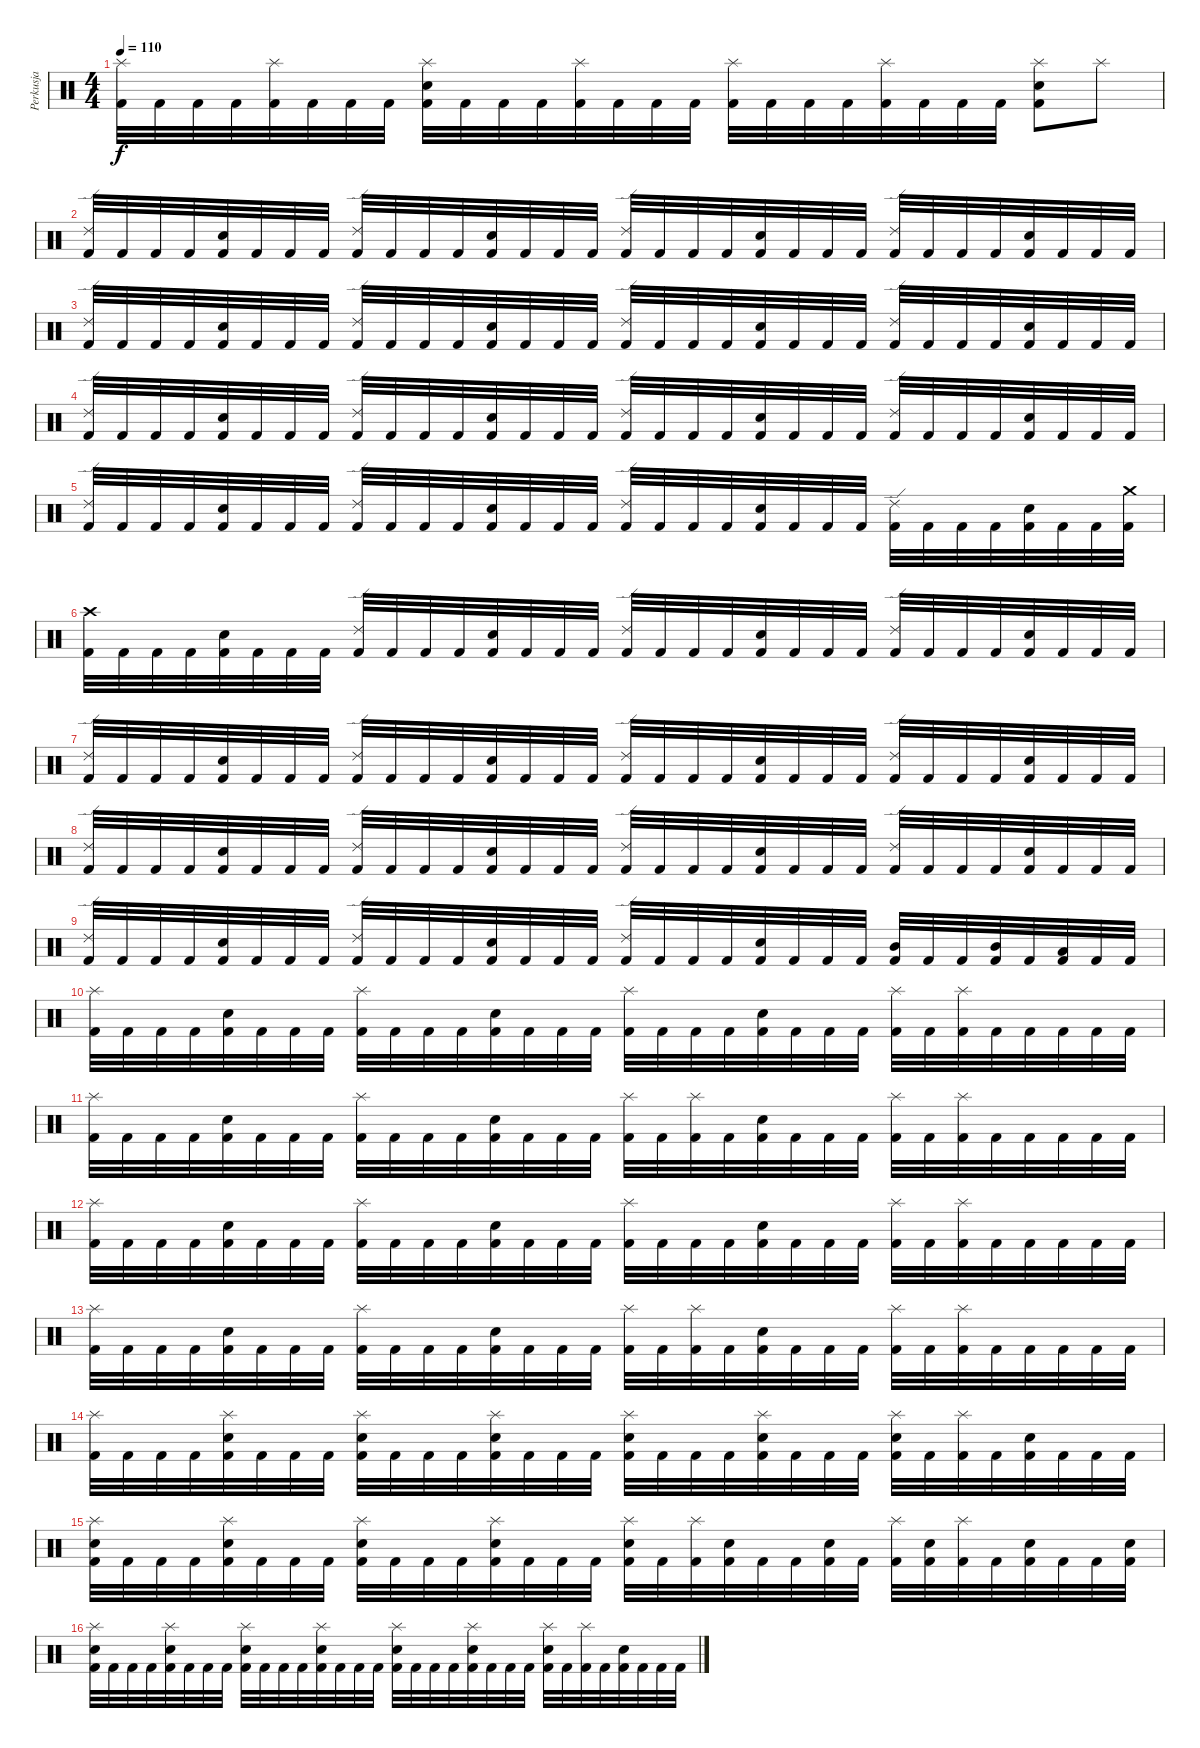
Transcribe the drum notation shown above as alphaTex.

\track ("Perkusja" "Perkusja") {instrument percussion}
\staff {score}
\articulation defaults
\ts (4 4)
\tempo 110
\clef neutral
\ks c
("Splash (hit)" "Kick (hit) 2").32{dy f} "Kick (hit) 2".32 "Kick (hit) 2".32 "Kick (hit) 2".32 ("Splash (hit)" "Kick (hit) 2").32 "Kick (hit) 2".32 "Kick (hit) 2".32 "Kick (hit) 2".32 ("Splash (hit)" "Snare (hit) 2" "Kick (hit) 2").32 "Kick (hit) 2".32 "Kick (hit) 2".32 "Kick (hit) 2".32 ("Splash (hit)" "Kick (hit) 2").32 "Kick (hit) 2".32 "Kick (hit) 2".32 "Kick (hit) 2".32 ("Splash (hit)" "Kick (hit) 2").32 "Kick (hit) 2".32 "Kick (hit) 2".32 "Kick (hit) 2".32 ("Splash (hit)" "Kick (hit) 2").32 "Kick (hit) 2".32 "Kick (hit) 2".32 "Kick (hit) 2".32 ("Splash (hit)" "Snare (hit) 2" "Kick (hit) 2").8 "Splash (hit)".8 |
("Ride (edge) 2" "Kick (hit) 2").32 "Kick (hit) 2".32 "Kick (hit) 2".32 "Kick (hit) 2".32 ("Snare (hit) 2" "Kick (hit) 2").32 "Kick (hit) 2".32 "Kick (hit) 2".32 "Kick (hit) 2".32 ("Ride (edge) 2" "Kick (hit) 2").32 "Kick (hit) 2".32 "Kick (hit) 2".32 "Kick (hit) 2".32 ("Snare (hit) 2" "Kick (hit) 2").32 "Kick (hit) 2".32 "Kick (hit) 2".32 "Kick (hit) 2".32 ("Ride (edge) 2" "Kick (hit) 2").32 "Kick (hit) 2".32 "Kick (hit) 2".32 "Kick (hit) 2".32 ("Snare (hit) 2" "Kick (hit) 2").32 "Kick (hit) 2".32 "Kick (hit) 2".32 "Kick (hit) 2".32 ("Ride (edge) 2" "Kick (hit) 2").32 "Kick (hit) 2".32 "Kick (hit) 2".32 "Kick (hit) 2".32 ("Snare (hit) 2" "Kick (hit) 2").32 "Kick (hit) 2".32 "Kick (hit) 2".32 "Kick (hit) 2".32 |
("Ride (edge) 2" "Kick (hit) 2").32 "Kick (hit) 2".32 "Kick (hit) 2".32 "Kick (hit) 2".32 ("Snare (hit) 2" "Kick (hit) 2").32 "Kick (hit) 2".32 "Kick (hit) 2".32 "Kick (hit) 2".32 ("Ride (edge) 2" "Kick (hit) 2").32 "Kick (hit) 2".32 "Kick (hit) 2".32 "Kick (hit) 2".32 ("Snare (hit) 2" "Kick (hit) 2").32 "Kick (hit) 2".32 "Kick (hit) 2".32 "Kick (hit) 2".32 ("Ride (edge) 2" "Kick (hit) 2").32 "Kick (hit) 2".32 "Kick (hit) 2".32 "Kick (hit) 2".32 ("Snare (hit) 2" "Kick (hit) 2").32 "Kick (hit) 2".32 "Kick (hit) 2".32 "Kick (hit) 2".32 ("Ride (edge) 2" "Kick (hit) 2").32 "Kick (hit) 2".32 "Kick (hit) 2".32 "Kick (hit) 2".32 ("Snare (hit) 2" "Kick (hit) 2").32 "Kick (hit) 2".32 "Kick (hit) 2".32 "Kick (hit) 2".32 |
("Ride (edge) 2" "Kick (hit) 2").32 "Kick (hit) 2".32 "Kick (hit) 2".32 "Kick (hit) 2".32 ("Snare (hit) 2" "Kick (hit) 2").32 "Kick (hit) 2".32 "Kick (hit) 2".32 "Kick (hit) 2".32 ("Ride (edge) 2" "Kick (hit) 2").32 "Kick (hit) 2".32 "Kick (hit) 2".32 "Kick (hit) 2".32 ("Snare (hit) 2" "Kick (hit) 2").32 "Kick (hit) 2".32 "Kick (hit) 2".32 "Kick (hit) 2".32 ("Ride (edge) 2" "Kick (hit) 2").32 "Kick (hit) 2".32 "Kick (hit) 2".32 "Kick (hit) 2".32 ("Snare (hit) 2" "Kick (hit) 2").32 "Kick (hit) 2".32 "Kick (hit) 2".32 "Kick (hit) 2".32 ("Ride (edge) 2" "Kick (hit) 2").32 "Kick (hit) 2".32 "Kick (hit) 2".32 "Kick (hit) 2".32 ("Snare (hit) 2" "Kick (hit) 2").32 "Kick (hit) 2".32 "Kick (hit) 2".32 "Kick (hit) 2".32 |
("Ride (edge) 2" "Kick (hit) 2").32 "Kick (hit) 2".32 "Kick (hit) 2".32 "Kick (hit) 2".32 ("Snare (hit) 2" "Kick (hit) 2").32 "Kick (hit) 2".32 "Kick (hit) 2".32 "Kick (hit) 2".32 ("Ride (edge) 2" "Kick (hit) 2").32 "Kick (hit) 2".32 "Kick (hit) 2".32 "Kick (hit) 2".32 ("Snare (hit) 2" "Kick (hit) 2").32 "Kick (hit) 2".32 "Kick (hit) 2".32 "Kick (hit) 2".32 ("Ride (edge) 2" "Kick (hit) 2").32 "Kick (hit) 2".32 "Kick (hit) 2".32 "Kick (hit) 2".32 ("Snare (hit) 2" "Kick (hit) 2").32 "Kick (hit) 2".32 "Kick (hit) 2".32 "Kick (hit) 2".32 ("Ride (edge) 2" "Kick (hit) 2").32 "Kick (hit) 2".32 "Kick (hit) 2".32 "Kick (hit) 2".32 ("Snare (hit) 2" "Kick (hit) 2").32 "Kick (hit) 2".32 "Kick (hit) 2".32 ("Crash medium (hit)" "Kick (hit) 2").32 |
("Crash high (hit)" "Kick (hit) 2").32 "Kick (hit) 2".32 "Kick (hit) 2".32 "Kick (hit) 2".32 ("Snare (hit) 2" "Kick (hit) 2").32 "Kick (hit) 2".32 "Kick (hit) 2".32 "Kick (hit) 2".32 ("Ride (edge) 2" "Kick (hit) 2").32 "Kick (hit) 2".32 "Kick (hit) 2".32 "Kick (hit) 2".32 ("Snare (hit) 2" "Kick (hit) 2").32 "Kick (hit) 2".32 "Kick (hit) 2".32 "Kick (hit) 2".32 ("Ride (edge) 2" "Kick (hit) 2").32 "Kick (hit) 2".32 "Kick (hit) 2".32 "Kick (hit) 2".32 ("Snare (hit) 2" "Kick (hit) 2").32 "Kick (hit) 2".32 "Kick (hit) 2".32 "Kick (hit) 2".32 ("Ride (edge) 2" "Kick (hit) 2").32 "Kick (hit) 2".32 "Kick (hit) 2".32 "Kick (hit) 2".32 ("Snare (hit) 2" "Kick (hit) 2").32 "Kick (hit) 2".32 "Kick (hit) 2".32 "Kick (hit) 2".32 |
("Ride (edge) 2" "Kick (hit) 2").32 "Kick (hit) 2".32 "Kick (hit) 2".32 "Kick (hit) 2".32 ("Snare (hit) 2" "Kick (hit) 2").32 "Kick (hit) 2".32 "Kick (hit) 2".32 "Kick (hit) 2".32 ("Ride (edge) 2" "Kick (hit) 2").32 "Kick (hit) 2".32 "Kick (hit) 2".32 "Kick (hit) 2".32 ("Snare (hit) 2" "Kick (hit) 2").32 "Kick (hit) 2".32 "Kick (hit) 2".32 "Kick (hit) 2".32 ("Ride (edge) 2" "Kick (hit) 2").32 "Kick (hit) 2".32 "Kick (hit) 2".32 "Kick (hit) 2".32 ("Snare (hit) 2" "Kick (hit) 2").32 "Kick (hit) 2".32 "Kick (hit) 2".32 "Kick (hit) 2".32 ("Ride (edge) 2" "Kick (hit) 2").32 "Kick (hit) 2".32 "Kick (hit) 2".32 "Kick (hit) 2".32 ("Snare (hit) 2" "Kick (hit) 2").32 "Kick (hit) 2".32 "Kick (hit) 2".32 "Kick (hit) 2".32 |
("Ride (edge) 2" "Kick (hit) 2").32 "Kick (hit) 2".32 "Kick (hit) 2".32 "Kick (hit) 2".32 ("Snare (hit) 2" "Kick (hit) 2").32 "Kick (hit) 2".32 "Kick (hit) 2".32 "Kick (hit) 2".32 ("Ride (edge) 2" "Kick (hit) 2").32 "Kick (hit) 2".32 "Kick (hit) 2".32 "Kick (hit) 2".32 ("Snare (hit) 2" "Kick (hit) 2").32 "Kick (hit) 2".32 "Kick (hit) 2".32 "Kick (hit) 2".32 ("Ride (edge) 2" "Kick (hit) 2").32 "Kick (hit) 2".32 "Kick (hit) 2".32 "Kick (hit) 2".32 ("Snare (hit) 2" "Kick (hit) 2").32 "Kick (hit) 2".32 "Kick (hit) 2".32 "Kick (hit) 2".32 ("Ride (edge) 2" "Kick (hit) 2").32 "Kick (hit) 2".32 "Kick (hit) 2".32 "Kick (hit) 2".32 ("Snare (hit) 2" "Kick (hit) 2").32 "Kick (hit) 2".32 "Kick (hit) 2".32 "Kick (hit) 2".32 |
("Ride (edge) 2" "Kick (hit) 2").32 "Kick (hit) 2".32 "Kick (hit) 2".32 "Kick (hit) 2".32 ("Snare (hit) 2" "Kick (hit) 2").32 "Kick (hit) 2".32 "Kick (hit) 2".32 "Kick (hit) 2".32 ("Ride (edge) 2" "Kick (hit) 2").32 "Kick (hit) 2".32 "Kick (hit) 2".32 "Kick (hit) 2".32 ("Snare (hit) 2" "Kick (hit) 2").32 "Kick (hit) 2".32 "Kick (hit) 2".32 "Kick (hit) 2".32 ("Ride (edge) 2" "Kick (hit) 2").32 "Kick (hit) 2".32 "Kick (hit) 2".32 "Kick (hit) 2".32 ("Snare (hit) 2" "Kick (hit) 2").32 "Kick (hit) 2".32 "Kick (hit) 2".32 "Kick (hit) 2".32 ("Mid Tom (hit)" "Kick (hit) 2").32 "Kick (hit) 2".32 "Kick (hit) 2".32 ("Mid Tom (hit)" "Kick (hit) 2").32 "Kick (hit) 2".32 ("Low Tom (hit)" "Kick (hit) 2").32 "Kick (hit) 2".32 "Kick (hit) 2".32 |
("Splash (hit)" "Kick (hit) 2").32 "Kick (hit) 2".32 "Kick (hit) 2".32 "Kick (hit) 2".32 ("Snare (hit) 2" "Kick (hit) 2").32 "Kick (hit) 2".32 "Kick (hit) 2".32 "Kick (hit) 2".32 ("Splash (hit)" "Kick (hit) 2").32 "Kick (hit) 2".32 "Kick (hit) 2".32 "Kick (hit) 2".32 ("Snare (hit) 2" "Kick (hit) 2").32 "Kick (hit) 2".32 "Kick (hit) 2".32 "Kick (hit) 2".32 ("Splash (hit)" "Kick (hit) 2").32 "Kick (hit) 2".32 "Kick (hit) 2".32 "Kick (hit) 2".32 ("Snare (hit) 2" "Kick (hit) 2").32 "Kick (hit) 2".32 "Kick (hit) 2".32 "Kick (hit) 2".32 ("Splash (hit)" "Kick (hit) 2").32 "Kick (hit) 2".32 ("Splash (hit)" "Kick (hit) 2").32 "Kick (hit) 2".32 "Kick (hit) 2".32 "Kick (hit) 2".32 "Kick (hit) 2".32 "Kick (hit) 2".32 |
("Splash (hit)" "Kick (hit) 2").32 "Kick (hit) 2".32 "Kick (hit) 2".32 "Kick (hit) 2".32 ("Snare (hit) 2" "Kick (hit) 2").32 "Kick (hit) 2".32 "Kick (hit) 2".32 "Kick (hit) 2".32 ("Splash (hit)" "Kick (hit) 2").32 "Kick (hit) 2".32 "Kick (hit) 2".32 "Kick (hit) 2".32 ("Snare (hit) 2" "Kick (hit) 2").32 "Kick (hit) 2".32 "Kick (hit) 2".32 "Kick (hit) 2".32 ("Splash (hit)" "Kick (hit) 2").32 "Kick (hit) 2".32 ("Splash (hit)" "Kick (hit) 2").32 "Kick (hit) 2".32 ("Snare (hit) 2" "Kick (hit) 2").32 "Kick (hit) 2".32 "Kick (hit) 2".32 "Kick (hit) 2".32 ("Splash (hit)" "Kick (hit) 2").32 "Kick (hit) 2".32 ("Splash (hit)" "Kick (hit) 2").32 "Kick (hit) 2".32 "Kick (hit) 2".32 "Kick (hit) 2".32 "Kick (hit) 2".32 "Kick (hit) 2".32 |
("Splash (hit)" "Kick (hit) 2").32 "Kick (hit) 2".32 "Kick (hit) 2".32 "Kick (hit) 2".32 ("Snare (hit) 2" "Kick (hit) 2").32 "Kick (hit) 2".32 "Kick (hit) 2".32 "Kick (hit) 2".32 ("Splash (hit)" "Kick (hit) 2").32 "Kick (hit) 2".32 "Kick (hit) 2".32 "Kick (hit) 2".32 ("Snare (hit) 2" "Kick (hit) 2").32 "Kick (hit) 2".32 "Kick (hit) 2".32 "Kick (hit) 2".32 ("Splash (hit)" "Kick (hit) 2").32 "Kick (hit) 2".32 "Kick (hit) 2".32 "Kick (hit) 2".32 ("Snare (hit) 2" "Kick (hit) 2").32 "Kick (hit) 2".32 "Kick (hit) 2".32 "Kick (hit) 2".32 ("Splash (hit)" "Kick (hit) 2").32 "Kick (hit) 2".32 ("Splash (hit)" "Kick (hit) 2").32 "Kick (hit) 2".32 "Kick (hit) 2".32 "Kick (hit) 2".32 "Kick (hit) 2".32 "Kick (hit) 2".32 |
("Splash (hit)" "Kick (hit) 2").32 "Kick (hit) 2".32 "Kick (hit) 2".32 "Kick (hit) 2".32 ("Snare (hit) 2" "Kick (hit) 2").32 "Kick (hit) 2".32 "Kick (hit) 2".32 "Kick (hit) 2".32 ("Splash (hit)" "Kick (hit) 2").32 "Kick (hit) 2".32 "Kick (hit) 2".32 "Kick (hit) 2".32 ("Snare (hit) 2" "Kick (hit) 2").32 "Kick (hit) 2".32 "Kick (hit) 2".32 "Kick (hit) 2".32 ("Splash (hit)" "Kick (hit) 2").32 "Kick (hit) 2".32 ("Splash (hit)" "Kick (hit) 2").32 "Kick (hit) 2".32 ("Snare (hit) 2" "Kick (hit) 2").32 "Kick (hit) 2".32 "Kick (hit) 2".32 "Kick (hit) 2".32 ("Splash (hit)" "Kick (hit) 2").32 "Kick (hit) 2".32 ("Splash (hit)" "Kick (hit) 2").32 "Kick (hit) 2".32 "Kick (hit) 2".32 "Kick (hit) 2".32 "Kick (hit) 2".32 "Kick (hit) 2".32 |
("Splash (hit)" "Kick (hit) 2").32 "Kick (hit) 2".32 "Kick (hit) 2".32 "Kick (hit) 2".32 ("Splash (hit)" "Snare (hit) 2" "Kick (hit) 2").32 "Kick (hit) 2".32 "Kick (hit) 2".32 "Kick (hit) 2".32 ("Splash (hit)" "Snare (hit) 2" "Kick (hit) 2").32 "Kick (hit) 2".32 "Kick (hit) 2".32 "Kick (hit) 2".32 ("Splash (hit)" "Snare (hit) 2" "Kick (hit) 2").32 "Kick (hit) 2".32 "Kick (hit) 2".32 "Kick (hit) 2".32 ("Splash (hit)" "Snare (hit) 2" "Kick (hit) 2").32 "Kick (hit) 2".32 "Kick (hit) 2".32 "Kick (hit) 2".32 ("Splash (hit)" "Snare (hit) 2" "Kick (hit) 2").32 "Kick (hit) 2".32 "Kick (hit) 2".32 "Kick (hit) 2".32 ("Splash (hit)" "Snare (hit) 2" "Kick (hit) 2").32 "Kick (hit) 2".32 ("Splash (hit)" "Kick (hit) 2").32 "Kick (hit) 2".32 ("Snare (hit) 2" "Kick (hit) 2").32 "Kick (hit) 2".32 "Kick (hit) 2".32 "Kick (hit) 2".32 |
("Splash (hit)" "Snare (hit) 2" "Kick (hit) 2").32 "Kick (hit) 2".32 "Kick (hit) 2".32 "Kick (hit) 2".32 ("Splash (hit)" "Snare (hit) 2" "Kick (hit) 2").32 "Kick (hit) 2".32 "Kick (hit) 2".32 "Kick (hit) 2".32 ("Splash (hit)" "Snare (hit) 2" "Kick (hit) 2").32 "Kick (hit) 2".32 "Kick (hit) 2".32 "Kick (hit) 2".32 ("Splash (hit)" "Snare (hit) 2" "Kick (hit) 2").32 "Kick (hit) 2".32 "Kick (hit) 2".32 "Kick (hit) 2".32 ("Splash (hit)" "Snare (hit) 2" "Kick (hit) 2").32 "Kick (hit) 2".32 ("Splash (hit)" "Kick (hit) 2").32 ("Snare (hit) 2" "Kick (hit) 2").32 "Kick (hit) 2".32 "Kick (hit) 2".32 ("Snare (hit) 2" "Kick (hit) 2").32 "Kick (hit) 2".32 ("Splash (hit)" "Kick (hit) 2").32 ("Snare (hit) 2" "Kick (hit) 2").32 ("Splash (hit)" "Kick (hit) 2").32 "Kick (hit) 2".32 ("Snare (hit) 2" "Kick (hit) 2").32 "Kick (hit) 2".32 "Kick (hit) 2".32 ("Snare (hit) 2" "Kick (hit) 2").32 |
("Splash (hit)" "Snare (hit) 2" "Kick (hit) 2").32 "Kick (hit) 2".32 "Kick (hit) 2".32 "Kick (hit) 2".32 ("Splash (hit)" "Snare (hit) 2" "Kick (hit) 2").32 "Kick (hit) 2".32 "Kick (hit) 2".32 "Kick (hit) 2".32 ("Splash (hit)" "Snare (hit) 2" "Kick (hit) 2").32 "Kick (hit) 2".32 "Kick (hit) 2".32 "Kick (hit) 2".32 ("Splash (hit)" "Snare (hit) 2" "Kick (hit) 2").32 "Kick (hit) 2".32 "Kick (hit) 2".32 "Kick (hit) 2".32 ("Splash (hit)" "Snare (hit) 2" "Kick (hit) 2").32 "Kick (hit) 2".32 "Kick (hit) 2".32 "Kick (hit) 2".32 ("Splash (hit)" "Snare (hit) 2" "Kick (hit) 2").32 "Kick (hit) 2".32 "Kick (hit) 2".32 "Kick (hit) 2".32 ("Splash (hit)" "Snare (hit) 2" "Kick (hit) 2").32 "Kick (hit) 2".32 ("Splash (hit)" "Kick (hit) 2").32 "Kick (hit) 2".32 ("Snare (hit) 2" "Kick (hit) 2").32 "Kick (hit) 2".32 "Kick (hit) 2".32 "Kick (hit) 2".32
